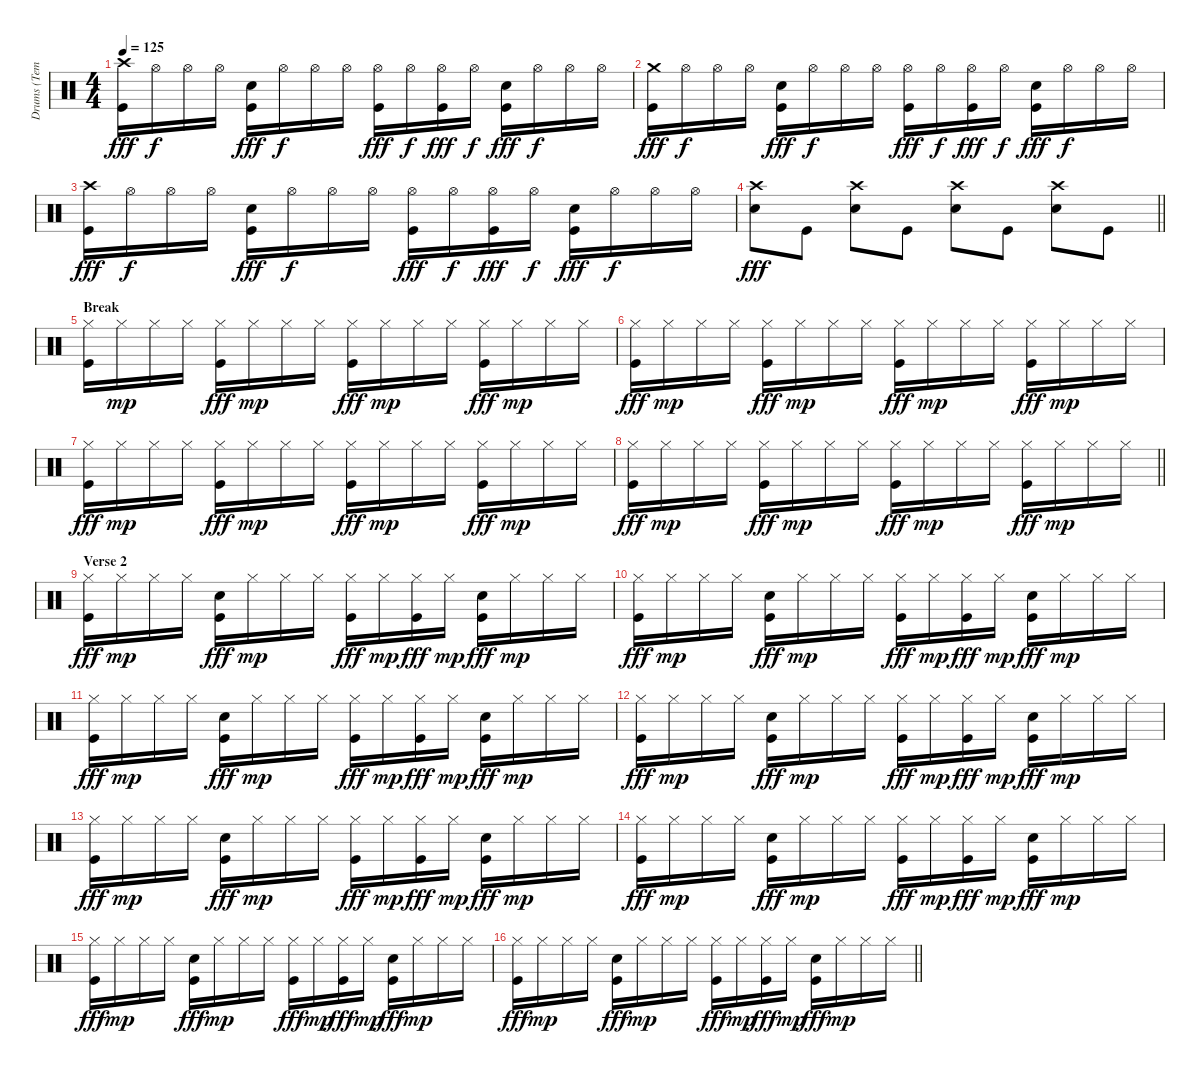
\track ("Drums (Tempesta)" "Drums (Tem") {instrument percussion}
\staff {score}
\articulation defaults
\ts (4 4)
\tempo 125
\clef neutral
\ks c
("Crash high (hit)" "Kick (hit)").16{dy fff} "Hi-Hat (open)".16{dy f} "Hi-Hat (open)".16 "Hi-Hat (open)".16 ("Electric Snare (hit)" "Kick (hit)").16{dy fff} "Hi-Hat (open)".16{dy f} "Hi-Hat (open)".16 "Hi-Hat (open)".16 ("Hi-Hat (open)" "Kick (hit)").16{dy fff} "Hi-Hat (open)".16{dy f} ("Hi-Hat (open)" "Kick (hit)").16{dy fff} "Hi-Hat (open)".16{dy f} ("Electric Snare (hit)" "Kick (hit)").16{dy fff} "Hi-Hat (open)".16{dy f} "Hi-Hat (open)".16 "Hi-Hat (open)".16 |
("Crash medium (hit)" "Kick (hit)").16{dy fff} "Hi-Hat (open)".16{dy f} "Hi-Hat (open)".16 "Hi-Hat (open)".16 ("Electric Snare (hit)" "Kick (hit)").16{dy fff} "Hi-Hat (open)".16{dy f} "Hi-Hat (open)".16 "Hi-Hat (open)".16 ("Hi-Hat (open)" "Kick (hit)").16{dy fff} "Hi-Hat (open)".16{dy f} ("Hi-Hat (open)" "Kick (hit)").16{dy fff} "Hi-Hat (open)".16{dy f} ("Electric Snare (hit)" "Kick (hit)").16{dy fff} "Hi-Hat (open)".16{dy f} "Hi-Hat (open)".16 "Hi-Hat (open)".16 |
("Crash high (hit)" "Kick (hit)").16{dy fff} "Hi-Hat (open)".16{dy f} "Hi-Hat (open)".16 "Hi-Hat (open)".16 ("Electric Snare (hit)" "Kick (hit)").16{dy fff} "Hi-Hat (open)".16{dy f} "Hi-Hat (open)".16 "Hi-Hat (open)".16 ("Hi-Hat (open)" "Kick (hit)").16{dy fff} "Hi-Hat (open)".16{dy f} ("Hi-Hat (open)" "Kick (hit)").16{dy fff} "Hi-Hat (open)".16{dy f} ("Electric Snare (hit)" "Kick (hit)").16{dy fff} "Hi-Hat (open)".16{dy f} "Hi-Hat (open)".16 "Hi-Hat (open)".16 |
\barLineRight lightlight
("Crash high (hit)" "Electric Snare (hit)").8{dy fff} "Kick (hit)".8 ("Crash high (hit)" "Electric Snare (hit)").8 "Kick (hit)".8 ("Crash high (hit)" "Electric Snare (hit)").8 "Kick (hit)".8 ("Crash high (hit)" "Electric Snare (hit)").8 "Kick (hit)".8 |
\section ("" "Break")
("Hi-Hat (closed)" "Kick (hit)").16 "Hi-Hat (closed)".16{dy mp} "Hi-Hat (closed)".16 "Hi-Hat (closed)".16 ("Hi-Hat (closed)" "Kick (hit)").16{dy fff} "Hi-Hat (closed)".16{dy mp} "Hi-Hat (closed)".16 "Hi-Hat (closed)".16 ("Hi-Hat (closed)" "Kick (hit)").16{dy fff} "Hi-Hat (closed)".16{dy mp} "Hi-Hat (closed)".16 "Hi-Hat (closed)".16 ("Hi-Hat (closed)" "Kick (hit)").16{dy fff} "Hi-Hat (closed)".16{dy mp} "Hi-Hat (closed)".16 "Hi-Hat (closed)".16 |
("Hi-Hat (closed)" "Kick (hit)").16{dy fff} "Hi-Hat (closed)".16{dy mp} "Hi-Hat (closed)".16 "Hi-Hat (closed)".16 ("Hi-Hat (closed)" "Kick (hit)").16{dy fff} "Hi-Hat (closed)".16{dy mp} "Hi-Hat (closed)".16 "Hi-Hat (closed)".16 ("Hi-Hat (closed)" "Kick (hit)").16{dy fff} "Hi-Hat (closed)".16{dy mp} "Hi-Hat (closed)".16 "Hi-Hat (closed)".16 ("Hi-Hat (closed)" "Kick (hit)").16{dy fff} "Hi-Hat (closed)".16{dy mp} "Hi-Hat (closed)".16 "Hi-Hat (closed)".16 |
("Hi-Hat (closed)" "Kick (hit)").16{dy fff} "Hi-Hat (closed)".16{dy mp} "Hi-Hat (closed)".16 "Hi-Hat (closed)".16 ("Hi-Hat (closed)" "Kick (hit)").16{dy fff} "Hi-Hat (closed)".16{dy mp} "Hi-Hat (closed)".16 "Hi-Hat (closed)".16 ("Hi-Hat (closed)" "Kick (hit)").16{dy fff} "Hi-Hat (closed)".16{dy mp} "Hi-Hat (closed)".16 "Hi-Hat (closed)".16 ("Hi-Hat (closed)" "Kick (hit)").16{dy fff} "Hi-Hat (closed)".16{dy mp} "Hi-Hat (closed)".16 "Hi-Hat (closed)".16 |
\barLineRight lightlight
("Hi-Hat (closed)" "Kick (hit)").16{dy fff} "Hi-Hat (closed)".16{dy mp} "Hi-Hat (closed)".16 "Hi-Hat (closed)".16 ("Hi-Hat (closed)" "Kick (hit)").16{dy fff} "Hi-Hat (closed)".16{dy mp} "Hi-Hat (closed)".16 "Hi-Hat (closed)".16 ("Hi-Hat (closed)" "Kick (hit)").16{dy fff} "Hi-Hat (closed)".16{dy mp} "Hi-Hat (closed)".16 "Hi-Hat (closed)".16 ("Hi-Hat (closed)" "Kick (hit)").16{dy fff} "Hi-Hat (closed)".16{dy mp} "Hi-Hat (closed)".16 "Hi-Hat (closed)".16 |
\section ("" "Verse 2")
("Hi-Hat (closed)" "Kick (hit)").16{dy fff} "Hi-Hat (closed)".16{dy mp} "Hi-Hat (closed)".16 "Hi-Hat (closed)".16 ("Electric Snare (hit)" "Kick (hit)").16{dy fff} "Hi-Hat (closed)".16{dy mp} "Hi-Hat (closed)".16 "Hi-Hat (closed)".16 ("Hi-Hat (closed)" "Kick (hit)").16{dy fff} "Hi-Hat (closed)".16{dy mp} ("Hi-Hat (closed)" "Kick (hit)").16{dy fff} "Hi-Hat (closed)".16{dy mp} ("Electric Snare (hit)" "Kick (hit)").16{dy fff} "Hi-Hat (closed)".16{dy mp} "Hi-Hat (closed)".16 "Hi-Hat (closed)".16 |
("Hi-Hat (closed)" "Kick (hit)").16{dy fff} "Hi-Hat (closed)".16{dy mp} "Hi-Hat (closed)".16 "Hi-Hat (closed)".16 ("Electric Snare (hit)" "Kick (hit)").16{dy fff} "Hi-Hat (closed)".16{dy mp} "Hi-Hat (closed)".16 "Hi-Hat (closed)".16 ("Hi-Hat (closed)" "Kick (hit)").16{dy fff} "Hi-Hat (closed)".16{dy mp} ("Hi-Hat (closed)" "Kick (hit)").16{dy fff} "Hi-Hat (closed)".16{dy mp} ("Electric Snare (hit)" "Kick (hit)").16{dy fff} "Hi-Hat (closed)".16{dy mp} "Hi-Hat (closed)".16 "Hi-Hat (closed)".16 |
("Hi-Hat (closed)" "Kick (hit)").16{dy fff} "Hi-Hat (closed)".16{dy mp} "Hi-Hat (closed)".16 "Hi-Hat (closed)".16 ("Electric Snare (hit)" "Kick (hit)").16{dy fff} "Hi-Hat (closed)".16{dy mp} "Hi-Hat (closed)".16 "Hi-Hat (closed)".16 ("Hi-Hat (closed)" "Kick (hit)").16{dy fff} "Hi-Hat (closed)".16{dy mp} ("Hi-Hat (closed)" "Kick (hit)").16{dy fff} "Hi-Hat (closed)".16{dy mp} ("Electric Snare (hit)" "Kick (hit)").16{dy fff} "Hi-Hat (closed)".16{dy mp} "Hi-Hat (closed)".16 "Hi-Hat (closed)".16 |
("Hi-Hat (closed)" "Kick (hit)").16{dy fff} "Hi-Hat (closed)".16{dy mp} "Hi-Hat (closed)".16 "Hi-Hat (closed)".16 ("Electric Snare (hit)" "Kick (hit)").16{dy fff} "Hi-Hat (closed)".16{dy mp} "Hi-Hat (closed)".16 "Hi-Hat (closed)".16 ("Hi-Hat (closed)" "Kick (hit)").16{dy fff} "Hi-Hat (closed)".16{dy mp} ("Hi-Hat (closed)" "Kick (hit)").16{dy fff} "Hi-Hat (closed)".16{dy mp} ("Electric Snare (hit)" "Kick (hit)").16{dy fff} "Hi-Hat (closed)".16{dy mp} "Hi-Hat (closed)".16 "Hi-Hat (closed)".16 |
("Hi-Hat (closed)" "Kick (hit)").16{dy fff} "Hi-Hat (closed)".16{dy mp} "Hi-Hat (closed)".16 "Hi-Hat (closed)".16 ("Electric Snare (hit)" "Kick (hit)").16{dy fff} "Hi-Hat (closed)".16{dy mp} "Hi-Hat (closed)".16 "Hi-Hat (closed)".16 ("Hi-Hat (closed)" "Kick (hit)").16{dy fff} "Hi-Hat (closed)".16{dy mp} ("Hi-Hat (closed)" "Kick (hit)").16{dy fff} "Hi-Hat (closed)".16{dy mp} ("Electric Snare (hit)" "Kick (hit)").16{dy fff} "Hi-Hat (closed)".16{dy mp} "Hi-Hat (closed)".16 "Hi-Hat (closed)".16 |
("Hi-Hat (closed)" "Kick (hit)").16{dy fff} "Hi-Hat (closed)".16{dy mp} "Hi-Hat (closed)".16 "Hi-Hat (closed)".16 ("Electric Snare (hit)" "Kick (hit)").16{dy fff} "Hi-Hat (closed)".16{dy mp} "Hi-Hat (closed)".16 "Hi-Hat (closed)".16 ("Hi-Hat (closed)" "Kick (hit)").16{dy fff} "Hi-Hat (closed)".16{dy mp} ("Hi-Hat (closed)" "Kick (hit)").16{dy fff} "Hi-Hat (closed)".16{dy mp} ("Electric Snare (hit)" "Kick (hit)").16{dy fff} "Hi-Hat (closed)".16{dy mp} "Hi-Hat (closed)".16 "Hi-Hat (closed)".16 |
("Hi-Hat (closed)" "Kick (hit)").16{dy fff} "Hi-Hat (closed)".16{dy mp} "Hi-Hat (closed)".16 "Hi-Hat (closed)".16 ("Electric Snare (hit)" "Kick (hit)").16{dy fff} "Hi-Hat (closed)".16{dy mp} "Hi-Hat (closed)".16 "Hi-Hat (closed)".16 ("Hi-Hat (closed)" "Kick (hit)").16{dy fff} "Hi-Hat (closed)".16{dy mp} ("Hi-Hat (closed)" "Kick (hit)").16{dy fff} "Hi-Hat (closed)".16{dy mp} ("Electric Snare (hit)" "Kick (hit)").16{dy fff} "Hi-Hat (closed)".16{dy mp} "Hi-Hat (closed)".16 "Hi-Hat (closed)".16 |
\barLineRight lightlight
("Hi-Hat (closed)" "Kick (hit)").16{dy fff} "Hi-Hat (closed)".16{dy mp} "Hi-Hat (closed)".16 "Hi-Hat (closed)".16 ("Electric Snare (hit)" "Kick (hit)").16{dy fff} "Hi-Hat (closed)".16{dy mp} "Hi-Hat (closed)".16 "Hi-Hat (closed)".16 ("Hi-Hat (closed)" "Kick (hit)").16{dy fff} "Hi-Hat (closed)".16{dy mp} ("Hi-Hat (closed)" "Kick (hit)").16{dy fff} "Hi-Hat (closed)".16{dy mp} ("Electric Snare (hit)" "Kick (hit)").16{dy fff} "Hi-Hat (closed)".16{dy mp} "Hi-Hat (closed)".16 "Hi-Hat (closed)".16
